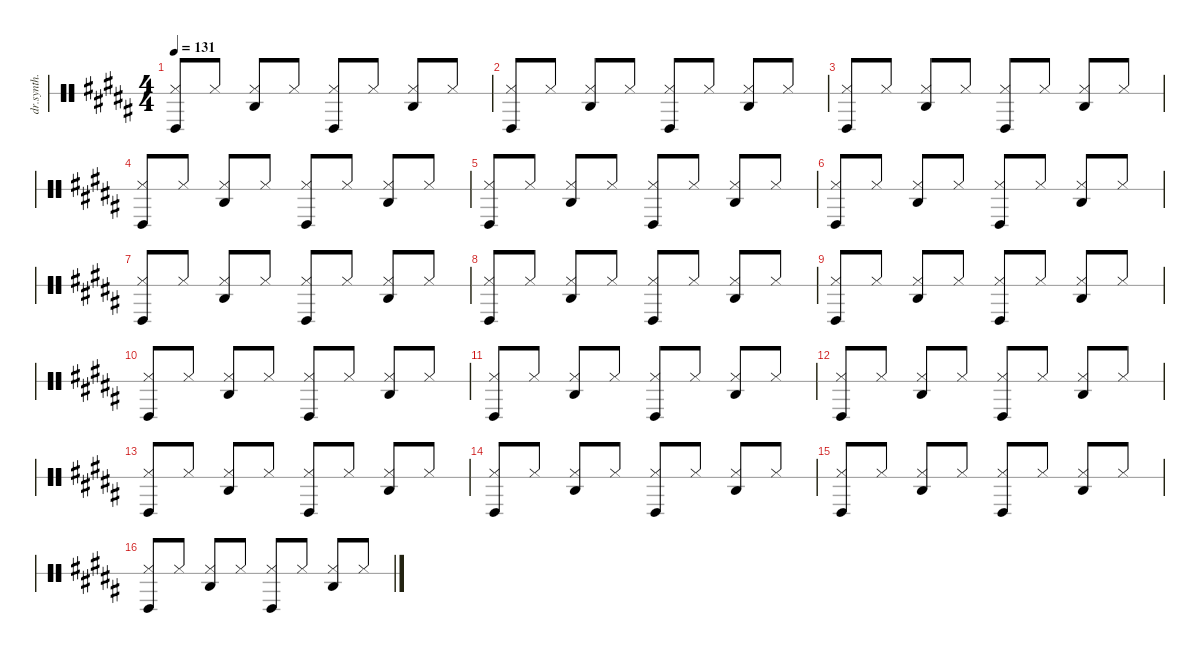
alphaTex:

\defaultSystemsLayout 4
\hideDynamics
\bracketExtendMode nobrackets
\track ("Synth Drum" "dr.synth.") {instrument percussion}
\staff {score 1}
\articulation defaults
\ts (4 4)
\tempo 131
\clef neutral
\ks g#minor
("Kick (hit)"{acc forcenatural} "Hi-Hat (closed)"{acc forcenatural}).8{dy p beam Up} "Hi-Hat (closed)"{acc forcenatural}.8{beam Up} ("Hi-Hat (closed)"{acc forcenatural} "Snare (hit) 2"{acc forcenatural}).8{beam Up} "Hi-Hat (closed)"{acc forcenatural}.8{beam Up} ("Hi-Hat (closed)"{acc forcenatural} "Kick (hit)"{acc forcenatural}).8{beam Up} "Hi-Hat (closed)"{acc forcenatural}.8{beam Up} ("Hi-Hat (closed)"{acc forcenatural} "Snare (hit) 2"{acc forcenatural}).8{beam Up} "Hi-Hat (closed)"{acc forcenatural}.8{beam Up} |
("Kick (hit)"{acc forcenatural} "Hi-Hat (closed)"{acc forcenatural}).8{beam Up} "Hi-Hat (closed)"{acc forcenatural}.8{beam Up} ("Hi-Hat (closed)"{acc forcenatural} "Snare (hit) 2"{acc forcenatural}).8{beam Up} "Hi-Hat (closed)"{acc forcenatural}.8{beam Up} ("Hi-Hat (closed)"{acc forcenatural} "Kick (hit)"{acc forcenatural}).8{beam Up} "Hi-Hat (closed)"{acc forcenatural}.8{beam Up} ("Hi-Hat (closed)"{acc forcenatural} "Snare (hit) 2"{acc forcenatural}).8{beam Up} "Hi-Hat (closed)"{acc forcenatural}.8{beam Up} |
("Kick (hit)"{acc forcenatural} "Hi-Hat (closed)"{acc forcenatural}).8{beam Up} "Hi-Hat (closed)"{acc forcenatural}.8{beam Up} ("Hi-Hat (closed)"{acc forcenatural} "Snare (hit) 2"{acc forcenatural}).8{beam Up} "Hi-Hat (closed)"{acc forcenatural}.8{beam Up} ("Hi-Hat (closed)"{acc forcenatural} "Kick (hit)"{acc forcenatural}).8{beam Up} "Hi-Hat (closed)"{acc forcenatural}.8{beam Up} ("Hi-Hat (closed)"{acc forcenatural} "Snare (hit) 2"{acc forcenatural}).8{beam Up} "Hi-Hat (closed)"{acc forcenatural}.8{beam Up} |
("Kick (hit)"{acc forcenatural} "Hi-Hat (closed)"{acc forcenatural}).8{beam Up} "Hi-Hat (closed)"{acc forcenatural}.8{beam Up} ("Hi-Hat (closed)"{acc forcenatural} "Snare (hit) 2"{acc forcenatural}).8{beam Up} "Hi-Hat (closed)"{acc forcenatural}.8{beam Up} ("Hi-Hat (closed)"{acc forcenatural} "Kick (hit)"{acc forcenatural}).8{beam Up} "Hi-Hat (closed)"{acc forcenatural}.8{beam Up} ("Hi-Hat (closed)"{acc forcenatural} "Snare (hit) 2"{acc forcenatural}).8{beam Up} "Hi-Hat (closed)"{acc forcenatural}.8{beam Up} |
("Kick (hit)"{acc forcenatural} "Hi-Hat (closed)"{acc forcenatural}).8{beam Up} "Hi-Hat (closed)"{acc forcenatural}.8{beam Up} ("Hi-Hat (closed)"{acc forcenatural} "Snare (hit) 2"{acc forcenatural}).8{beam Up} "Hi-Hat (closed)"{acc forcenatural}.8{beam Up} ("Hi-Hat (closed)"{acc forcenatural} "Kick (hit)"{acc forcenatural}).8{beam Up} "Hi-Hat (closed)"{acc forcenatural}.8{beam Up} ("Hi-Hat (closed)"{acc forcenatural} "Snare (hit) 2"{acc forcenatural}).8{beam Up} "Hi-Hat (closed)"{acc forcenatural}.8{beam Up} |
("Kick (hit)"{acc forcenatural} "Hi-Hat (closed)"{acc forcenatural}).8{beam Up} "Hi-Hat (closed)"{acc forcenatural}.8{beam Up} ("Hi-Hat (closed)"{acc forcenatural} "Snare (hit) 2"{acc forcenatural}).8{beam Up} "Hi-Hat (closed)"{acc forcenatural}.8{beam Up} ("Hi-Hat (closed)"{acc forcenatural} "Kick (hit)"{acc forcenatural}).8{beam Up} "Hi-Hat (closed)"{acc forcenatural}.8{beam Up} ("Hi-Hat (closed)"{acc forcenatural} "Snare (hit) 2"{acc forcenatural}).8{beam Up} "Hi-Hat (closed)"{acc forcenatural}.8{beam Up} |
("Kick (hit)"{acc forcenatural} "Hi-Hat (closed)"{acc forcenatural}).8{beam Up} "Hi-Hat (closed)"{acc forcenatural}.8{beam Up} ("Hi-Hat (closed)"{acc forcenatural} "Snare (hit) 2"{acc forcenatural}).8{beam Up} "Hi-Hat (closed)"{acc forcenatural}.8{beam Up} ("Hi-Hat (closed)"{acc forcenatural} "Kick (hit)"{acc forcenatural}).8{beam Up} "Hi-Hat (closed)"{acc forcenatural}.8{beam Up} ("Hi-Hat (closed)"{acc forcenatural} "Snare (hit) 2"{acc forcenatural}).8{beam Up} "Hi-Hat (closed)"{acc forcenatural}.8{beam Up} |
("Kick (hit)"{acc forcenatural} "Hi-Hat (closed)"{acc forcenatural}).8{beam Up} "Hi-Hat (closed)"{acc forcenatural}.8{beam Up} ("Hi-Hat (closed)"{acc forcenatural} "Snare (hit) 2"{acc forcenatural}).8{beam Up} "Hi-Hat (closed)"{acc forcenatural}.8{beam Up} ("Hi-Hat (closed)"{acc forcenatural} "Kick (hit)"{acc forcenatural}).8{beam Up} "Hi-Hat (closed)"{acc forcenatural}.8{beam Up} ("Hi-Hat (closed)"{acc forcenatural} "Snare (hit) 2"{acc forcenatural}).8{beam Up} "Hi-Hat (closed)"{acc forcenatural}.8{beam Up} |
("Kick (hit)"{acc forcenatural} "Hi-Hat (closed)"{acc forcenatural}).8{beam Up} "Hi-Hat (closed)"{acc forcenatural}.8{beam Up} ("Hi-Hat (closed)"{acc forcenatural} "Snare (hit) 2"{acc forcenatural}).8{beam Up} "Hi-Hat (closed)"{acc forcenatural}.8{beam Up} ("Hi-Hat (closed)"{acc forcenatural} "Kick (hit)"{acc forcenatural}).8{beam Up} "Hi-Hat (closed)"{acc forcenatural}.8{beam Up} ("Hi-Hat (closed)"{acc forcenatural} "Snare (hit) 2"{acc forcenatural}).8{beam Up} "Hi-Hat (closed)"{acc forcenatural}.8{beam Up} |
("Kick (hit)"{acc forcenatural} "Hi-Hat (closed)"{acc forcenatural}).8{beam Up} "Hi-Hat (closed)"{acc forcenatural}.8{beam Up} ("Hi-Hat (closed)"{acc forcenatural} "Snare (hit) 2"{acc forcenatural}).8{beam Up} "Hi-Hat (closed)"{acc forcenatural}.8{beam Up} ("Hi-Hat (closed)"{acc forcenatural} "Kick (hit)"{acc forcenatural}).8{beam Up} "Hi-Hat (closed)"{acc forcenatural}.8{beam Up} ("Hi-Hat (closed)"{acc forcenatural} "Snare (hit) 2"{acc forcenatural}).8{beam Up} "Hi-Hat (closed)"{acc forcenatural}.8{beam Up} |
("Kick (hit)"{acc forcenatural} "Hi-Hat (closed)"{acc forcenatural}).8{beam Up} "Hi-Hat (closed)"{acc forcenatural}.8{beam Up} ("Hi-Hat (closed)"{acc forcenatural} "Snare (hit) 2"{acc forcenatural}).8{beam Up} "Hi-Hat (closed)"{acc forcenatural}.8{beam Up} ("Hi-Hat (closed)"{acc forcenatural} "Kick (hit)"{acc forcenatural}).8{beam Up} "Hi-Hat (closed)"{acc forcenatural}.8{beam Up} ("Hi-Hat (closed)"{acc forcenatural} "Snare (hit) 2"{acc forcenatural}).8{beam Up} "Hi-Hat (closed)"{acc forcenatural}.8{beam Up} |
("Kick (hit)"{acc forcenatural} "Hi-Hat (closed)"{acc forcenatural}).8{beam Up} "Hi-Hat (closed)"{acc forcenatural}.8{beam Up} ("Hi-Hat (closed)"{acc forcenatural} "Snare (hit) 2"{acc forcenatural}).8{beam Up} "Hi-Hat (closed)"{acc forcenatural}.8{beam Up} ("Hi-Hat (closed)"{acc forcenatural} "Kick (hit)"{acc forcenatural}).8{beam Up} "Hi-Hat (closed)"{acc forcenatural}.8{beam Up} ("Hi-Hat (closed)"{acc forcenatural} "Snare (hit) 2"{acc forcenatural}).8{beam Up} "Hi-Hat (closed)"{acc forcenatural}.8{beam Up} |
("Kick (hit)"{acc forcenatural} "Hi-Hat (closed)"{acc forcenatural}).8{beam Up} "Hi-Hat (closed)"{acc forcenatural}.8{beam Up} ("Hi-Hat (closed)"{acc forcenatural} "Snare (hit) 2"{acc forcenatural}).8{beam Up} "Hi-Hat (closed)"{acc forcenatural}.8{beam Up} ("Hi-Hat (closed)"{acc forcenatural} "Kick (hit)"{acc forcenatural}).8{beam Up} "Hi-Hat (closed)"{acc forcenatural}.8{beam Up} ("Hi-Hat (closed)"{acc forcenatural} "Snare (hit) 2"{acc forcenatural}).8{beam Up} "Hi-Hat (closed)"{acc forcenatural}.8{beam Up} |
("Kick (hit)"{acc forcenatural} "Hi-Hat (closed)"{acc forcenatural}).8{beam Up} "Hi-Hat (closed)"{acc forcenatural}.8{beam Up} ("Hi-Hat (closed)"{acc forcenatural} "Snare (hit) 2"{acc forcenatural}).8{beam Up} "Hi-Hat (closed)"{acc forcenatural}.8{beam Up} ("Hi-Hat (closed)"{acc forcenatural} "Kick (hit)"{acc forcenatural}).8{beam Up} "Hi-Hat (closed)"{acc forcenatural}.8{beam Up} ("Hi-Hat (closed)"{acc forcenatural} "Snare (hit) 2"{acc forcenatural}).8{beam Up} "Hi-Hat (closed)"{acc forcenatural}.8{beam Up} |
("Kick (hit)"{acc forcenatural} "Hi-Hat (closed)"{acc forcenatural}).8{beam Up} "Hi-Hat (closed)"{acc forcenatural}.8{beam Up} ("Hi-Hat (closed)"{acc forcenatural} "Snare (hit) 2"{acc forcenatural}).8{beam Up} "Hi-Hat (closed)"{acc forcenatural}.8{beam Up} ("Hi-Hat (closed)"{acc forcenatural} "Kick (hit)"{acc forcenatural}).8{beam Up} "Hi-Hat (closed)"{acc forcenatural}.8{beam Up} ("Hi-Hat (closed)"{acc forcenatural} "Snare (hit) 2"{acc forcenatural}).8{beam Up} "Hi-Hat (closed)"{acc forcenatural}.8{beam Up} |
("Kick (hit)"{acc forcenatural} "Hi-Hat (closed)"{acc forcenatural}).8{beam Up} "Hi-Hat (closed)"{acc forcenatural}.8{beam Up} ("Hi-Hat (closed)"{acc forcenatural} "Snare (hit) 2"{acc forcenatural}).8{beam Up} "Hi-Hat (closed)"{acc forcenatural}.8{beam Up} ("Hi-Hat (closed)"{acc forcenatural} "Kick (hit)"{acc forcenatural}).8{beam Up} "Hi-Hat (closed)"{acc forcenatural}.8{beam Up} ("Hi-Hat (closed)"{acc forcenatural} "Snare (hit) 2"{acc forcenatural}).8{beam Up} "Hi-Hat (closed)"{acc forcenatural}.8{beam Up}
